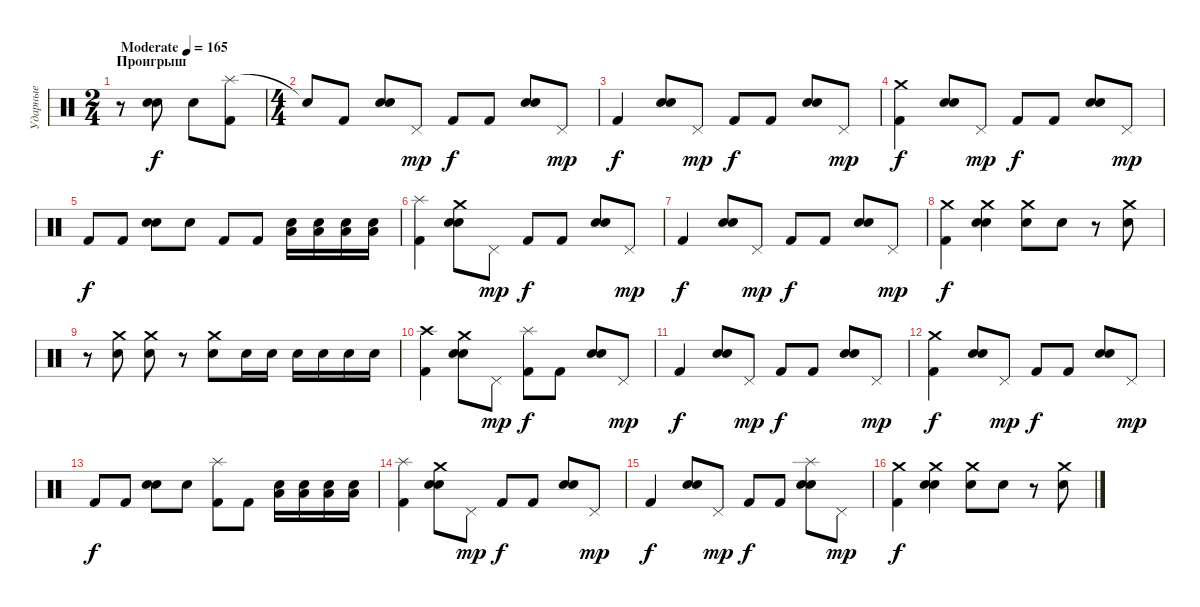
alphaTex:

\track ("Ударные" "Ударные") {instrument percussion}
\staff {score}
\articulation defaults
\ts (2 4)
\section ("" "Проигрыш")
\tempo (165 "Moderate")
\clef neutral
\ks c
r.8{dy f} ("Electric Snare (hit)" "Snare (hit) 2").8 "Electric Snare (hit)".8 ("Splash (hit)" "Kick (hit) 2").8 |
\ts (4 4)
"Snare (hit)"{t}.8 "Kick (hit) 2".8 ("Electric Snare (hit)" "Snare (hit) 2").8 "Pedal Hi-Hat (hit)".8{dy mp} "Kick (hit) 2".8{dy f} "Kick (hit) 2".8 ("Electric Snare (hit)" "Snare (hit) 2").8 "Pedal Hi-Hat (hit)".8{dy mp} |
"Kick (hit) 2".4{dy f} ("Electric Snare (hit)" "Snare (hit) 2").8 "Pedal Hi-Hat (hit)".8{dy mp} "Kick (hit) 2".8{dy f} "Kick (hit) 2".8 ("Electric Snare (hit)" "Snare (hit) 2").8 "Pedal Hi-Hat (hit)".8{dy mp} |
("Crash medium (hit)" "Kick (hit) 2").4{dy f} ("Electric Snare (hit)" "Snare (hit) 2").8 "Pedal Hi-Hat (hit)".8{dy mp} "Kick (hit) 2".8{dy f} "Kick (hit) 2".8 ("Electric Snare (hit)" "Snare (hit) 2").8 "Pedal Hi-Hat (hit)".8{dy mp} |
"Kick (hit) 2".8{dy f} "Kick (hit) 2".8 ("Electric Snare (hit)" "Snare (hit) 2").8 "Electric Snare (hit)".8 "Kick (hit) 2".8 "Kick (hit) 2".8 ("Low Tom (hit)" "Snare (hit) 2").16 ("Low Tom (hit)" "Snare (hit) 2").16 ("Low Tom (hit)" "Snare (hit) 2").16 ("Low Tom (hit)" "Snare (hit) 2").16 |
("Splash (hit)" "Kick (hit) 2").4 ("Crash medium (hit)" "Electric Snare (hit)" "Snare (hit) 2").8 "Pedal Hi-Hat (hit)".8{dy mp} "Kick (hit) 2".8{dy f} "Kick (hit) 2".8 ("Electric Snare (hit)" "Snare (hit) 2").8 "Pedal Hi-Hat (hit)".8{dy mp} |
"Kick (hit) 2".4{dy f} ("Electric Snare (hit)" "Snare (hit) 2").8 "Pedal Hi-Hat (hit)".8{dy mp} "Kick (hit) 2".8{dy f} "Kick (hit) 2".8 ("Electric Snare (hit)" "Snare (hit) 2").8 "Pedal Hi-Hat (hit)".8{dy mp} |
("Crash medium (hit)" "Kick (hit) 2").4{dy f} ("Crash medium (hit)" "Electric Snare (hit)" "Snare (hit) 2").4 ("Crash medium (hit)" "Electric Snare (hit)").8 "Electric Snare (hit)".8 r.8 ("Crash medium (hit)" "Electric Snare (hit)").8 |
r.8 ("Crash medium (hit)" "Electric Snare (hit)").8 ("Crash medium (hit)" "Electric Snare (hit)").8 r.8 ("Crash medium (hit)" "Electric Snare (hit)").8 "Electric Snare (hit)".16 "Electric Snare (hit)".16 "Electric Snare (hit)".16 "Electric Snare (hit)".16 "Electric Snare (hit)".16 "Electric Snare (hit)".16 |
("Crash high (hit)" "Kick (hit) 2").4 ("Crash medium (hit)" "Electric Snare (hit)" "Snare (hit) 2").8 "Pedal Hi-Hat (hit)".8{dy mp} ("Splash (hit)" "Kick (hit) 2").8{dy f} "Kick (hit) 2".8 ("Electric Snare (hit)" "Snare (hit) 2").8 "Pedal Hi-Hat (hit)".8{dy mp} |
"Kick (hit) 2".4{dy f} ("Electric Snare (hit)" "Snare (hit) 2").8 "Pedal Hi-Hat (hit)".8{dy mp} "Kick (hit) 2".8{dy f} "Kick (hit) 2".8 ("Electric Snare (hit)" "Snare (hit) 2").8 "Pedal Hi-Hat (hit)".8{dy mp} |
("Crash medium (hit)" "Kick (hit) 2").4{dy f} ("Electric Snare (hit)" "Snare (hit) 2").8 "Pedal Hi-Hat (hit)".8{dy mp} "Kick (hit) 2".8{dy f} "Kick (hit) 2".8 ("Electric Snare (hit)" "Snare (hit) 2").8 "Pedal Hi-Hat (hit)".8{dy mp} |
"Kick (hit) 2".8{dy f} "Kick (hit) 2".8 ("Electric Snare (hit)" "Snare (hit) 2").8 "Electric Snare (hit)".8 ("Splash (hit)" "Kick (hit) 2").8 "Kick (hit) 2".8 ("Low Tom (hit)" "Snare (hit) 2").16 ("Low Tom (hit)" "Snare (hit) 2").16 ("Low Tom (hit)" "Snare (hit) 2").16 ("Low Tom (hit)" "Snare (hit) 2").16 |
("Splash (hit)" "Kick (hit) 2").4 ("Crash medium (hit)" "Electric Snare (hit)" "Snare (hit) 2").8 "Pedal Hi-Hat (hit)".8{dy mp} "Kick (hit) 2".8{dy f} "Kick (hit) 2".8 ("Electric Snare (hit)" "Snare (hit) 2").8 "Pedal Hi-Hat (hit)".8{dy mp} |
"Kick (hit) 2".4{dy f} ("Electric Snare (hit)" "Snare (hit) 2").8 "Pedal Hi-Hat (hit)".8{dy mp} "Kick (hit) 2".8{dy f} "Kick (hit) 2".8 ("Splash (hit)" "Electric Snare (hit)" "Snare (hit) 2").8 "Pedal Hi-Hat (hit)".8{dy mp} |
("Crash medium (hit)" "Kick (hit) 2").4{dy f} ("Crash medium (hit)" "Electric Snare (hit)" "Snare (hit) 2").4 ("Crash medium (hit)" "Electric Snare (hit)").8 "Electric Snare (hit)".8 r.8 ("Crash medium (hit)" "Electric Snare (hit)").8
